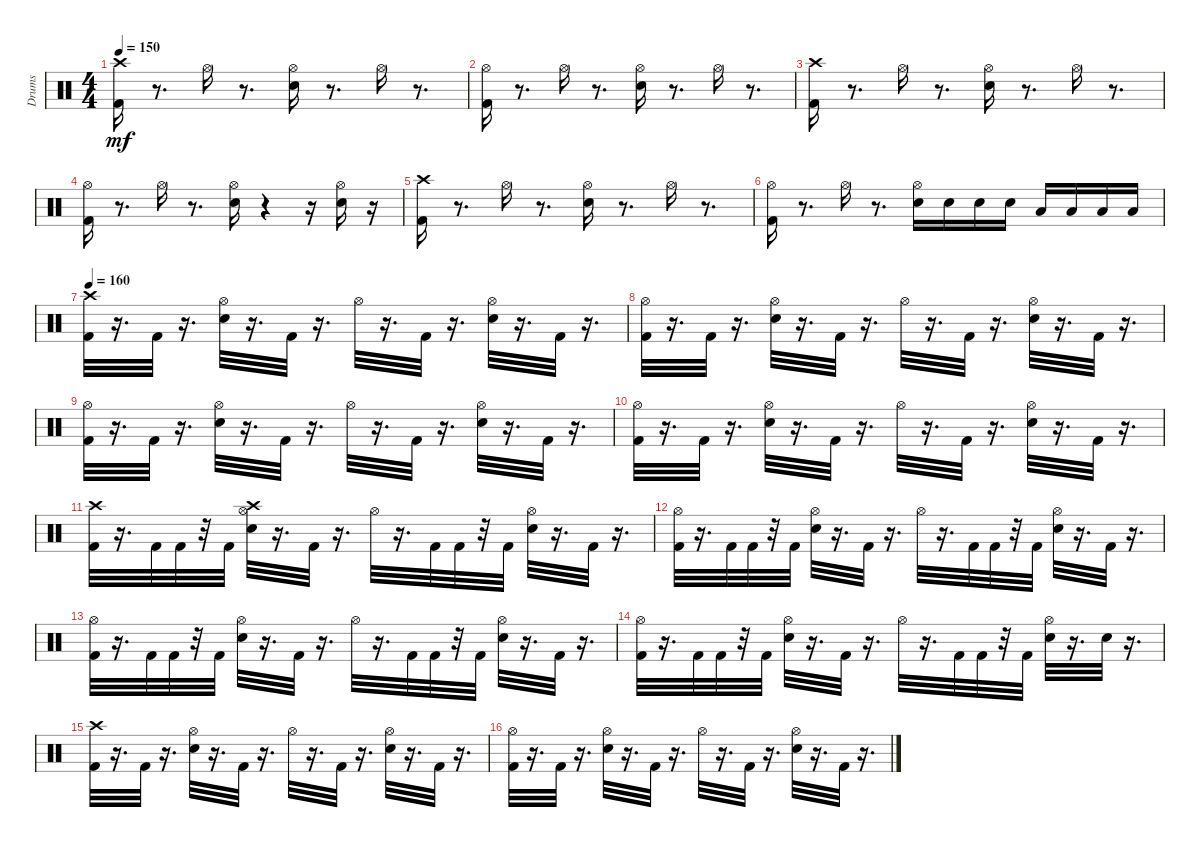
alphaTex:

\track ("Drums               " "Drums     ") {instrument percussion}
\staff {score}
\articulation defaults
\ts (4 4)
\tempo 150
\clef neutral
\ks c
("Kick (hit) 2" "Crash high (hit)").16{dy mf} r.8{d} "Hi-Hat (open)".16 r.8{d} ("Hi-Hat (open)" "Snare (hit) 2").16 r.8{d} "Hi-Hat (open)".16 r.8{d} |
("Kick (hit) 2" "Hi-Hat (open)").16 r.8{d} "Hi-Hat (open)".16 r.8{d} ("Hi-Hat (open)" "Snare (hit) 2").16 r.8{d} "Hi-Hat (open)".16 r.8{d} |
("Kick (hit) 2" "Crash high (hit)").16 r.8{d} "Hi-Hat (open)".16 r.8{d} ("Hi-Hat (open)" "Snare (hit) 2").16 r.8{d} "Hi-Hat (open)".16 r.8{d} |
("Kick (hit) 2" "Hi-Hat (open)").16 r.8{d} "Hi-Hat (open)".16 r.8{d} ("Hi-Hat (open)" "Snare (hit) 2").16 r.4 r.16 ("Snare (hit) 2" "Hi-Hat (open)").16 r.16 |
("Kick (hit) 2" "Crash high (hit)").16 r.8{d} "Hi-Hat (open)".16 r.8{d} ("Hi-Hat (open)" "Snare (hit) 2").16 r.8{d} "Hi-Hat (open)".16 r.8{d} |
("Kick (hit) 2" "Hi-Hat (open)").16 r.8{d} "Hi-Hat (open)".16 r.8{d} ("Hi-Hat (open)" "Snare (hit) 2").16 "Snare (hit) 2".16 "Snare (hit) 2".16 "Snare (hit) 2".16 "Low Tom (hit)".16 "Low Tom (hit)".16 "Low Tom (hit)".16 "Low Tom (hit)".16 |
\tempo 160
("Kick (hit) 2" "Crash high (hit)").32 r.16{d} "Kick (hit) 2".32 r.16{d} ("Hi-Hat (open)" "Snare (hit) 2").32 r.16{d} "Kick (hit) 2".32 r.16{d} "Hi-Hat (open)".32 r.16{d} "Kick (hit) 2".32 r.16{d} ("Hi-Hat (open)" "Snare (hit) 2").32 r.16{d} "Kick (hit) 2".32 r.16{d} |
("Kick (hit) 2" "Hi-Hat (open)").32 r.16{d} "Kick (hit) 2".32 r.16{d} ("Hi-Hat (open)" "Snare (hit) 2").32 r.16{d} "Kick (hit) 2".32 r.16{d} "Hi-Hat (open)".32 r.16{d} "Kick (hit) 2".32 r.16{d} ("Hi-Hat (open)" "Snare (hit) 2").32 r.16{d} "Kick (hit) 2".32 r.16{d} |
("Kick (hit) 2" "Hi-Hat (open)").32 r.16{d} "Kick (hit) 2".32 r.16{d} ("Hi-Hat (open)" "Snare (hit) 2").32 r.16{d} "Kick (hit) 2".32 r.16{d} "Hi-Hat (open)".32 r.16{d} "Kick (hit) 2".32 r.16{d} ("Hi-Hat (open)" "Snare (hit) 2").32 r.16{d} "Kick (hit) 2".32 r.16{d} |
("Kick (hit) 2" "Hi-Hat (open)").32 r.16{d} "Kick (hit) 2".32 r.16{d} ("Hi-Hat (open)" "Snare (hit) 2").32 r.16{d} "Kick (hit) 2".32 r.16{d} "Hi-Hat (open)".32 r.16{d} "Kick (hit) 2".32 r.16{d} ("Hi-Hat (open)" "Snare (hit) 2").32 r.16{d} "Kick (hit) 2".32 r.16{d} |
("Kick (hit) 2" "Crash high (hit)").32 r.16{d} "Kick (hit) 2".32 "Kick (hit) 2".32 r.32 "Kick (hit) 2".32 ("Hi-Hat (open)" "Snare (hit) 2" "Crash high (hit)").32 r.16{d} "Kick (hit) 2".32 r.16{d} "Hi-Hat (open)".32 r.16{d} "Kick (hit) 2".32 "Kick (hit) 2".32 r.32 "Kick (hit) 2".32 ("Hi-Hat (open)" "Snare (hit) 2").32 r.16{d} "Kick (hit) 2".32 r.16{d} |
("Kick (hit) 2" "Hi-Hat (open)").32 r.16{d} "Kick (hit) 2".32 "Kick (hit) 2".32 r.32 "Kick (hit) 2".32 ("Hi-Hat (open)" "Snare (hit) 2").32 r.16{d} "Kick (hit) 2".32 r.16{d} "Hi-Hat (open)".32 r.16{d} "Kick (hit) 2".32 "Kick (hit) 2".32 r.32 "Kick (hit) 2".32 ("Hi-Hat (open)" "Snare (hit) 2").32 r.16{d} "Kick (hit) 2".32 r.16{d} |
("Kick (hit) 2" "Hi-Hat (open)").32 r.16{d} "Kick (hit) 2".32 "Kick (hit) 2".32 r.32 "Kick (hit) 2".32 ("Hi-Hat (open)" "Snare (hit) 2").32 r.16{d} "Kick (hit) 2".32 r.16{d} "Hi-Hat (open)".32 r.16{d} "Kick (hit) 2".32 "Kick (hit) 2".32 r.32 "Kick (hit) 2".32 ("Hi-Hat (open)" "Snare (hit) 2").32 r.16{d} "Kick (hit) 2".32 r.16{d} |
("Kick (hit) 2" "Hi-Hat (open)").32 r.16{d} "Kick (hit) 2".32 "Kick (hit) 2".32 r.32 "Kick (hit) 2".32 ("Hi-Hat (open)" "Snare (hit) 2").32 r.16{d} "Kick (hit) 2".32 r.16{d} "Hi-Hat (open)".32 r.16{d} "Kick (hit) 2".32 "Kick (hit) 2".32 r.32 "Kick (hit) 2".32 ("Hi-Hat (open)" "Snare (hit) 2").32 r.16{d} "Snare (hit) 2".32 r.16{d} |
("Kick (hit) 2" "Crash high (hit)").32 r.16{d} "Kick (hit) 2".32 r.16{d} ("Hi-Hat (open)" "Snare (hit) 2").32 r.16{d} "Kick (hit) 2".32 r.16{d} "Hi-Hat (open)".32 r.16{d} "Kick (hit) 2".32 r.16{d} ("Hi-Hat (open)" "Snare (hit) 2").32 r.16{d} "Kick (hit) 2".32 r.16{d} |
("Kick (hit) 2" "Hi-Hat (open)").32 r.16{d} "Kick (hit) 2".32 r.16{d} ("Hi-Hat (open)" "Snare (hit) 2").32 r.16{d} "Kick (hit) 2".32 r.16{d} "Hi-Hat (open)".32 r.16{d} "Kick (hit) 2".32 r.16{d} ("Hi-Hat (open)" "Snare (hit) 2").32 r.16{d} "Kick (hit) 2".32 r.16{d}
